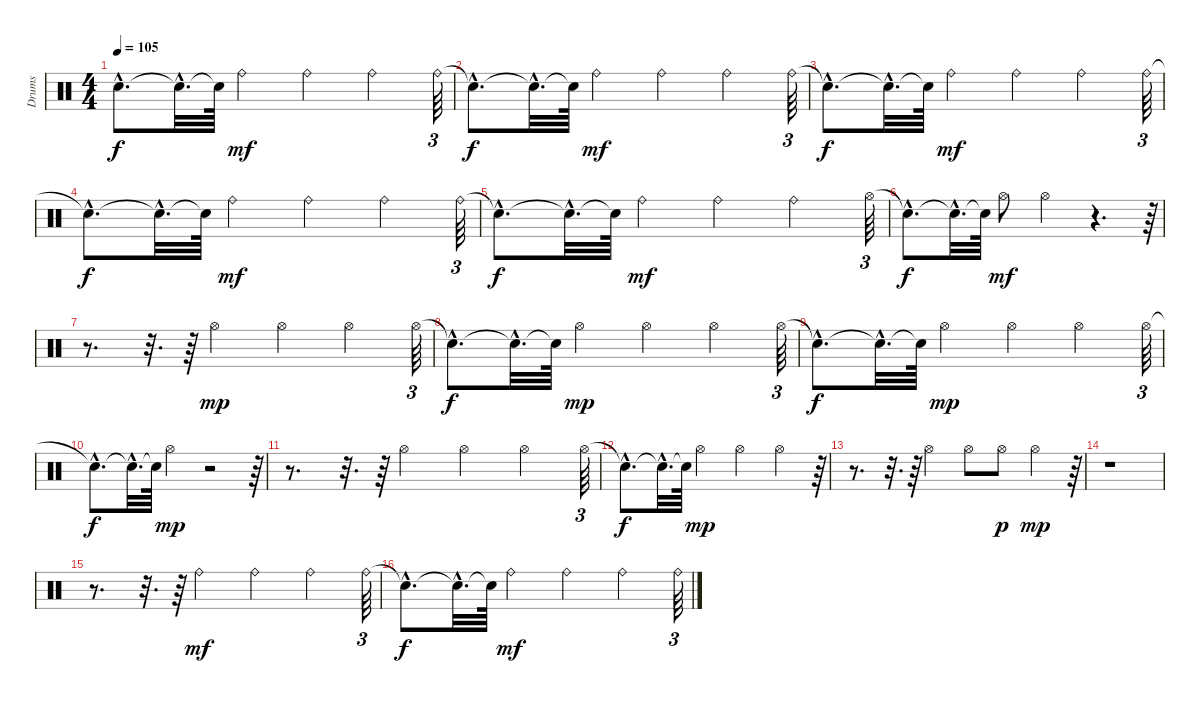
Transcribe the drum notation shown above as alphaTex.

\track ("Drums" "Drums") {instrument percussion}
\staff {score}
\articulation defaults
\ts (4 4)
\tempo 105
\clef neutral
\ks c "Snare (hit)"{hac t}.8{d dy f} "Snare (hit)"{hac t}.32{d} "Snare (hit)"{t}.64 "Ride (bell)".4{dy mf} "Ride (bell)".4 "Ride (bell)".4 "Ride (bell)".64{tu (3 2)}
|
"Snare (hit)"{hac t}.8{d dy f} "Snare (hit)"{hac t}.32{d} "Snare (hit)"{t}.64 "Ride (bell)".4{dy mf} "Ride (bell)".4 "Ride (bell)".4 "Ride (bell)".64{tu (3 2)} |
"Snare (hit)"{hac t}.8{d dy f} "Snare (hit)"{hac t}.32{d} "Snare (hit)"{t}.64 "Ride (bell)".4{dy mf} "Ride (bell)".4 "Ride (bell)".4 "Ride (bell)".64{tu (3 2)} |
"Snare (hit)"{hac t}.8{d dy f} "Snare (hit)"{hac t}.32{d} "Snare (hit)"{t}.64 "Ride (bell)".4{dy mf} "Ride (bell)".4 "Ride (bell)".4 "Ride (bell)".64{tu (3 2)} |
"Snare (hit)"{hac t}.8{d dy f} "Snare (hit)"{hac t}.32{d} "Snare (hit)"{t}.64 "Ride (bell)".4{dy mf} "Ride (bell)".4 "Ride (bell)".4 "Hi-Hat (open)".64{tu (3 2)} |
"Snare (hit)"{hac t}.8{d dy f} "Snare (hit)"{hac t}.32{d} "Snare (hit)"{t}.64 "Hi-Hat (open)".8{dy mf} "Hi-Hat (open)".4 r.4{d} r.64{tu (3 2)} |
r.8{d} r.32{d} r.64 "Hi-Hat (open)".4{dy mp} "Hi-Hat (open)".4 "Hi-Hat (open)".4 "Hi-Hat (open)".64{tu (3 2)} |
"Snare (hit)"{hac t}.8{d dy f} "Snare (hit)"{hac t}.32{d} "Snare (hit)"{t}.64 "Hi-Hat (open)".4{dy mp} "Hi-Hat (open)".4 "Hi-Hat (open)".4 "Hi-Hat (open)".64{tu (3 2)} |
"Snare (hit)"{hac t}.8{d dy f} "Snare (hit)"{hac t}.32{d} "Snare (hit)"{t}.64 "Hi-Hat (open)".4{dy mp} "Hi-Hat (open)".4 "Hi-Hat (open)".4 "Hi-Hat (open)".64{tu (3 2)} |
"Snare (hit)"{hac t}.8{d dy f} "Snare (hit)"{hac t}.32{d} "Snare (hit)"{t}.64 "Hi-Hat (open)".4{dy mp} r.2 r.64{tu (3 2)} |
r.8{d} r.32{d} r.64 "Hi-Hat (open)".4 "Hi-Hat (open)".4 "Hi-Hat (open)".4 "Hi-Hat (open)".64{tu (3 2)} |
"Snare (hit)"{hac t}.8{d dy f} "Snare (hit)"{hac t}.32{d} "Snare (hit)"{t}.64 "Hi-Hat (open)".4{dy mp} "Hi-Hat (open)".4 "Hi-Hat (open)".4 r.64{tu (3 2)} |
r.8{d} r.32{d} r.64 "Hi-Hat (open)".4 "Hi-Hat (open)".8 "Hi-Hat (open)".8{dy p} "Hi-Hat (open)".4{dy mp} r.64{tu (3 2)} |
r.1 |
r.8{d} r.32{d} r.64 "Ride (bell)".4{dy mf} "Ride (bell)".4 "Ride (bell)".4 "Ride (bell)".64{tu (3 2)} |
"Snare (hit)"{hac t}.8{d dy f} "Snare (hit)"{hac t}.32{d} "Snare (hit)"{t}.64 "Ride (bell)".4{dy mf} "Ride (bell)".4 "Ride (bell)".4 "Ride (bell)".64{tu (3 2)}
